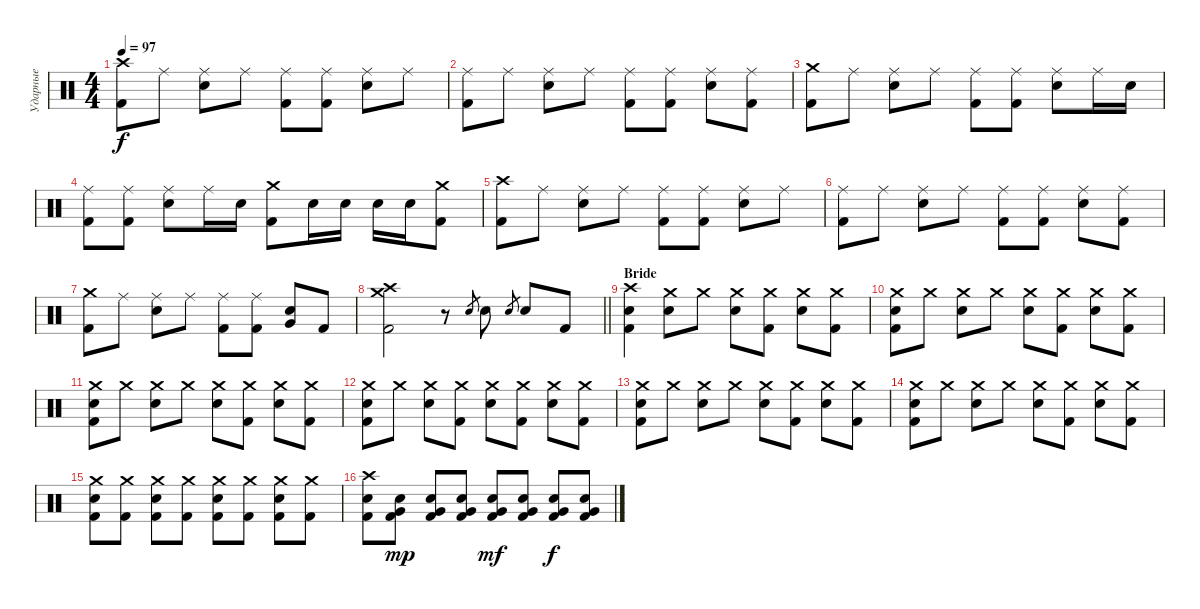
\track ("Ударные" "Ударные") {instrument percussion}
\staff {score}
\articulation defaults
\ts (4 4)
\tempo 97
\clef neutral
\ks c
("Crash high (hit)" "Kick (hit) 2").8{dy f} "Ride (middle)".8 ("Ride (middle)" "Electric Snare (hit)").8 "Ride (middle)".8 ("Ride (middle)" "Kick (hit) 2").8 ("Ride (middle)" "Kick (hit) 2").8 ("Ride (middle)" "Electric Snare (hit)").8 "Ride (middle)".8 |
("Ride (middle)" "Kick (hit) 2").8 "Ride (middle)".8 ("Ride (middle)" "Electric Snare (hit)").8 "Ride (middle)".8 ("Ride (middle)" "Kick (hit) 2").8 ("Ride (middle)" "Kick (hit) 2").8 ("Ride (middle)" "Electric Snare (hit)").8 ("Ride (middle)" "Kick (hit) 2").8 |
("Crash medium (hit)" "Kick (hit) 2").8 "Ride (middle)".8 ("Ride (middle)" "Electric Snare (hit)").8 "Ride (middle)".8 ("Ride (middle)" "Kick (hit) 2").8 ("Ride (middle)" "Kick (hit) 2").8 ("Ride (middle)" "Electric Snare (hit)").8 "Ride (middle)".16 "Electric Snare (hit)".16 |
("Ride (middle)" "Kick (hit) 2").8 ("Ride (middle)" "Kick (hit) 2").8 ("Ride (middle)" "Electric Snare (hit)").8 "Ride (middle)".16 "Electric Snare (hit)".16 ("Crash medium (hit)" "Kick (hit) 2").8 "Electric Snare (hit)".16 "Electric Snare (hit)".16 "Electric Snare (hit)".16 "Electric Snare (hit)".16 ("Crash medium (hit)" "Kick (hit) 2").8 |
("Crash high (hit)" "Kick (hit) 2").8 "Ride (middle)".8 ("Ride (middle)" "Electric Snare (hit)").8 "Ride (middle)".8 ("Ride (middle)" "Kick (hit) 2").8 ("Ride (middle)" "Kick (hit) 2").8 ("Ride (middle)" "Electric Snare (hit)").8 "Ride (middle)".8 |
("Ride (middle)" "Kick (hit) 2").8 "Ride (middle)".8 ("Ride (middle)" "Electric Snare (hit)").8 "Ride (middle)".8 ("Ride (middle)" "Kick (hit) 2").8 ("Ride (middle)" "Kick (hit) 2").8 ("Ride (middle)" "Electric Snare (hit)").8 ("Ride (middle)" "Kick (hit) 2").8 |
("Crash medium (hit)" "Kick (hit) 2").8 "Ride (middle)".8 ("Ride (middle)" "Electric Snare (hit)").8 "Ride (middle)".8 ("Ride (middle)" "Kick (hit) 2").8 ("Ride (middle)" "Kick (hit) 2").8 ("Electric Snare (hit)" "Very Low Tom (hit)").8 "Kick (hit) 2".8 |
\barLineRight lightlight
("Crash high (hit)" "Crash medium (hit)" "Kick (hit) 2").2 r.8 "Electric Snare (hit)".8{gr} "Electric Snare (hit)".8 "Electric Snare (hit)".8{gr} "Electric Snare (hit)".8 "Kick (hit) 2".8 |
\section ("" "Bride")
("Crash high (hit)" "Electric Snare (hit)" "Kick (hit) 2").4 ("Crash medium (hit)" "Electric Snare (hit)").8 "Crash medium (hit)".8 ("Crash medium (hit)" "Electric Snare (hit)").8 ("Crash medium (hit)" "Kick (hit) 2").8 ("Crash medium (hit)" "Electric Snare (hit)").8 ("Crash medium (hit)" "Kick (hit) 2").8 |
("Crash medium (hit)" "Electric Snare (hit)" "Kick (hit) 2").8 "Crash medium (hit)".8 ("Crash medium (hit)" "Electric Snare (hit)").8 "Crash medium (hit)".8 ("Crash medium (hit)" "Electric Snare (hit)").8 ("Crash medium (hit)" "Kick (hit) 2").8 ("Crash medium (hit)" "Electric Snare (hit)").8 ("Crash medium (hit)" "Kick (hit) 2").8 |
("Crash medium (hit)" "Electric Snare (hit)" "Kick (hit) 2").8 "Crash medium (hit)".8 ("Crash medium (hit)" "Electric Snare (hit)").8 "Crash medium (hit)".8 ("Crash medium (hit)" "Electric Snare (hit)").8 ("Crash medium (hit)" "Kick (hit) 2").8 ("Crash medium (hit)" "Electric Snare (hit)").8 ("Crash medium (hit)" "Kick (hit) 2").8 |
("Crash medium (hit)" "Electric Snare (hit)" "Kick (hit) 2").8 "Crash medium (hit)".8 ("Crash medium (hit)" "Electric Snare (hit)").8 ("Crash medium (hit)" "Kick (hit) 2").8 ("Crash medium (hit)" "Electric Snare (hit)").8 ("Crash medium (hit)" "Kick (hit) 2").8 ("Crash medium (hit)" "Electric Snare (hit)").8 ("Crash medium (hit)" "Kick (hit) 2").8 |
("Crash medium (hit)" "Electric Snare (hit)" "Kick (hit) 2").8 "Crash medium (hit)".8 ("Crash medium (hit)" "Electric Snare (hit)").8 "Crash medium (hit)".8 ("Crash medium (hit)" "Electric Snare (hit)").8 ("Crash medium (hit)" "Kick (hit) 2").8 ("Crash medium (hit)" "Electric Snare (hit)").8 ("Crash medium (hit)" "Kick (hit) 2").8 |
("Crash medium (hit)" "Electric Snare (hit)" "Kick (hit) 2").8 "Crash medium (hit)".8 ("Crash medium (hit)" "Electric Snare (hit)").8 "Crash medium (hit)".8 ("Crash medium (hit)" "Electric Snare (hit)").8 ("Crash medium (hit)" "Kick (hit) 2").8 ("Crash medium (hit)" "Electric Snare (hit)").8 ("Crash medium (hit)" "Kick (hit) 2").8 |
("Crash medium (hit)" "Electric Snare (hit)" "Kick (hit) 2").8 ("Crash medium (hit)" "Kick (hit) 2").8 ("Crash medium (hit)" "Electric Snare (hit)" "Kick (hit) 2").8 ("Crash medium (hit)" "Kick (hit) 2").8 ("Crash medium (hit)" "Electric Snare (hit)" "Kick (hit) 2").8 ("Crash medium (hit)" "Kick (hit) 2").8 ("Crash medium (hit)" "Electric Snare (hit)" "Kick (hit) 2").8 ("Crash medium (hit)" "Kick (hit) 2").8 |
("Crash high (hit)" "Electric Snare (hit)" "Kick (hit) 2").8 ("Electric Snare (hit)" "Very Low Tom (hit)" "Kick (hit) 2").8{dy mp} ("Electric Snare (hit)" "Very Low Tom (hit)" "Kick (hit) 2").8 ("Electric Snare (hit)" "Very Low Tom (hit)" "Kick (hit) 2").8 ("Electric Snare (hit)" "Very Low Tom (hit)" "Kick (hit) 2").8{dy mf} ("Electric Snare (hit)" "Very Low Tom (hit)" "Kick (hit) 2").8 ("Electric Snare (hit)" "Very Low Tom (hit)" "Kick (hit) 2").8{dy f} ("Electric Snare (hit)" "Very Low Tom (hit)" "Kick (hit) 2").8
